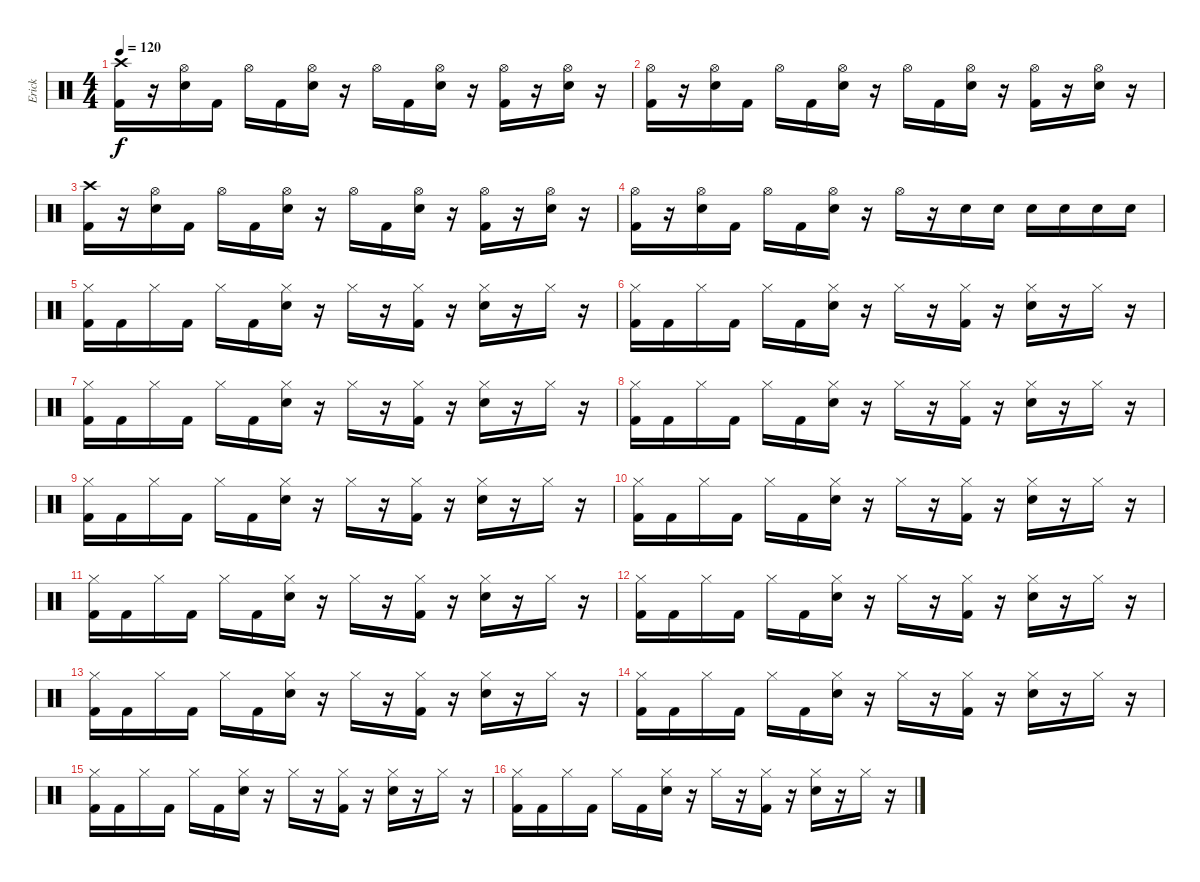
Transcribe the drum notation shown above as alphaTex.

\track ("Erick" "Erick") {instrument percussion}
\staff {score}
\articulation defaults
\ts (4 4)
\tempo 120
\clef neutral
\ks c
("Crash high (hit)" "Kick (hit) 2").16{dy f} r.16 ("Hi-Hat (open)" "Electric Snare (hit)").16 "Kick (hit) 2".16 "Hi-Hat (open)".16 "Kick (hit) 2".16 ("Hi-Hat (open)" "Electric Snare (hit)").16 r.16 "Hi-Hat (open)".16 "Kick (hit) 2".16 ("Hi-Hat (open)" "Electric Snare (hit)").16 r.16 ("Hi-Hat (open)" "Kick (hit) 2").16 r.16 ("Hi-Hat (open)" "Electric Snare (hit)").16 r.16 |
("Hi-Hat (open)" "Kick (hit) 2").16 r.16 ("Hi-Hat (open)" "Electric Snare (hit)").16 "Kick (hit) 2".16 "Hi-Hat (open)".16 "Kick (hit) 2".16 ("Hi-Hat (open)" "Electric Snare (hit)").16 r.16 "Hi-Hat (open)".16 "Kick (hit) 2".16 ("Hi-Hat (open)" "Electric Snare (hit)").16 r.16 ("Hi-Hat (open)" "Kick (hit) 2").16 r.16 ("Hi-Hat (open)" "Electric Snare (hit)").16 r.16 |
("Crash high (hit)" "Kick (hit) 2").16 r.16 ("Hi-Hat (open)" "Electric Snare (hit)").16 "Kick (hit) 2".16 "Hi-Hat (open)".16 "Kick (hit) 2".16 ("Hi-Hat (open)" "Electric Snare (hit)").16 r.16 "Hi-Hat (open)".16 "Kick (hit) 2".16 ("Hi-Hat (open)" "Electric Snare (hit)").16 r.16 ("Hi-Hat (open)" "Kick (hit) 2").16 r.16 ("Hi-Hat (open)" "Electric Snare (hit)").16 r.16 |
("Hi-Hat (open)" "Kick (hit) 2").16 r.16 ("Hi-Hat (open)" "Electric Snare (hit)").16 "Kick (hit) 2".16 "Hi-Hat (open)".16 "Kick (hit) 2".16 ("Hi-Hat (open)" "Electric Snare (hit)").16 r.16 "Hi-Hat (open)".16 r.16 "Electric Snare (hit)".16 "Electric Snare (hit)".16 "Electric Snare (hit)".16 "Electric Snare (hit)".16 "Electric Snare (hit)".16 "Electric Snare (hit)".16 |
("Hi-Hat (closed)" "Kick (hit) 2").16 "Kick (hit) 2".16 "Hi-Hat (closed)".16 "Kick (hit) 2".16 "Hi-Hat (closed)".16 "Kick (hit) 2".16 ("Hi-Hat (closed)" "Electric Snare (hit)").16 r.16 "Hi-Hat (closed)".16 r.16 ("Hi-Hat (closed)" "Kick (hit) 2").16 r.16 ("Hi-Hat (closed)" "Electric Snare (hit)").16 r.16 "Hi-Hat (closed)".16 r.16 |
("Hi-Hat (closed)" "Kick (hit) 2").16 "Kick (hit) 2".16 "Hi-Hat (closed)".16 "Kick (hit) 2".16 "Hi-Hat (closed)".16 "Kick (hit) 2".16 ("Hi-Hat (closed)" "Electric Snare (hit)").16 r.16 "Hi-Hat (closed)".16 r.16 ("Hi-Hat (closed)" "Kick (hit) 2").16 r.16 ("Hi-Hat (closed)" "Electric Snare (hit)").16 r.16 "Hi-Hat (closed)".16 r.16 |
("Hi-Hat (closed)" "Kick (hit) 2").16 "Kick (hit) 2".16 "Hi-Hat (closed)".16 "Kick (hit) 2".16 "Hi-Hat (closed)".16 "Kick (hit) 2".16 ("Hi-Hat (closed)" "Electric Snare (hit)").16 r.16 "Hi-Hat (closed)".16 r.16 ("Hi-Hat (closed)" "Kick (hit) 2").16 r.16 ("Hi-Hat (closed)" "Electric Snare (hit)").16 r.16 "Hi-Hat (closed)".16 r.16 |
("Hi-Hat (closed)" "Kick (hit) 2").16 "Kick (hit) 2".16 "Hi-Hat (closed)".16 "Kick (hit) 2".16 "Hi-Hat (closed)".16 "Kick (hit) 2".16 ("Hi-Hat (closed)" "Electric Snare (hit)").16 r.16 "Hi-Hat (closed)".16 r.16 ("Hi-Hat (closed)" "Kick (hit) 2").16 r.16 ("Hi-Hat (closed)" "Electric Snare (hit)").16 r.16 "Hi-Hat (closed)".16 r.16 |
("Hi-Hat (closed)" "Kick (hit) 2").16 "Kick (hit) 2".16 "Hi-Hat (closed)".16 "Kick (hit) 2".16 "Hi-Hat (closed)".16 "Kick (hit) 2".16 ("Hi-Hat (closed)" "Electric Snare (hit)").16 r.16 "Hi-Hat (closed)".16 r.16 ("Hi-Hat (closed)" "Kick (hit) 2").16 r.16 ("Hi-Hat (closed)" "Electric Snare (hit)").16 r.16 "Hi-Hat (closed)".16 r.16 |
("Hi-Hat (closed)" "Kick (hit) 2").16 "Kick (hit) 2".16 "Hi-Hat (closed)".16 "Kick (hit) 2".16 "Hi-Hat (closed)".16 "Kick (hit) 2".16 ("Hi-Hat (closed)" "Electric Snare (hit)").16 r.16 "Hi-Hat (closed)".16 r.16 ("Hi-Hat (closed)" "Kick (hit) 2").16 r.16 ("Hi-Hat (closed)" "Electric Snare (hit)").16 r.16 "Hi-Hat (closed)".16 r.16 |
("Hi-Hat (closed)" "Kick (hit) 2").16 "Kick (hit) 2".16 "Hi-Hat (closed)".16 "Kick (hit) 2".16 "Hi-Hat (closed)".16 "Kick (hit) 2".16 ("Hi-Hat (closed)" "Electric Snare (hit)").16 r.16 "Hi-Hat (closed)".16 r.16 ("Hi-Hat (closed)" "Kick (hit) 2").16 r.16 ("Hi-Hat (closed)" "Electric Snare (hit)").16 r.16 "Hi-Hat (closed)".16 r.16 |
("Hi-Hat (closed)" "Kick (hit) 2").16 "Kick (hit) 2".16 "Hi-Hat (closed)".16 "Kick (hit) 2".16 "Hi-Hat (closed)".16 "Kick (hit) 2".16 ("Hi-Hat (closed)" "Electric Snare (hit)").16 r.16 "Hi-Hat (closed)".16 r.16 ("Hi-Hat (closed)" "Kick (hit) 2").16 r.16 ("Hi-Hat (closed)" "Electric Snare (hit)").16 r.16 "Hi-Hat (closed)".16 r.16 |
("Hi-Hat (closed)" "Kick (hit) 2").16 "Kick (hit) 2".16 "Hi-Hat (closed)".16 "Kick (hit) 2".16 "Hi-Hat (closed)".16 "Kick (hit) 2".16 ("Hi-Hat (closed)" "Electric Snare (hit)").16 r.16 "Hi-Hat (closed)".16 r.16 ("Hi-Hat (closed)" "Kick (hit) 2").16 r.16 ("Hi-Hat (closed)" "Electric Snare (hit)").16 r.16 "Hi-Hat (closed)".16 r.16 |
("Hi-Hat (closed)" "Kick (hit) 2").16 "Kick (hit) 2".16 "Hi-Hat (closed)".16 "Kick (hit) 2".16 "Hi-Hat (closed)".16 "Kick (hit) 2".16 ("Hi-Hat (closed)" "Electric Snare (hit)").16 r.16 "Hi-Hat (closed)".16 r.16 ("Hi-Hat (closed)" "Kick (hit) 2").16 r.16 ("Hi-Hat (closed)" "Electric Snare (hit)").16 r.16 "Hi-Hat (closed)".16 r.16 |
("Hi-Hat (closed)" "Kick (hit) 2").16 "Kick (hit) 2".16 "Hi-Hat (closed)".16 "Kick (hit) 2".16 "Hi-Hat (closed)".16 "Kick (hit) 2".16 ("Hi-Hat (closed)" "Electric Snare (hit)").16 r.16 "Hi-Hat (closed)".16 r.16 ("Hi-Hat (closed)" "Kick (hit) 2").16 r.16 ("Hi-Hat (closed)" "Electric Snare (hit)").16 r.16 "Hi-Hat (closed)".16 r.16 |
("Hi-Hat (closed)" "Kick (hit) 2").16 "Kick (hit) 2".16 "Hi-Hat (closed)".16 "Kick (hit) 2".16 "Hi-Hat (closed)".16 "Kick (hit) 2".16 ("Hi-Hat (closed)" "Electric Snare (hit)").16 r.16 "Hi-Hat (closed)".16 r.16 ("Hi-Hat (closed)" "Kick (hit) 2").16 r.16 ("Hi-Hat (closed)" "Electric Snare (hit)").16 r.16 "Hi-Hat (closed)".16 r.16
